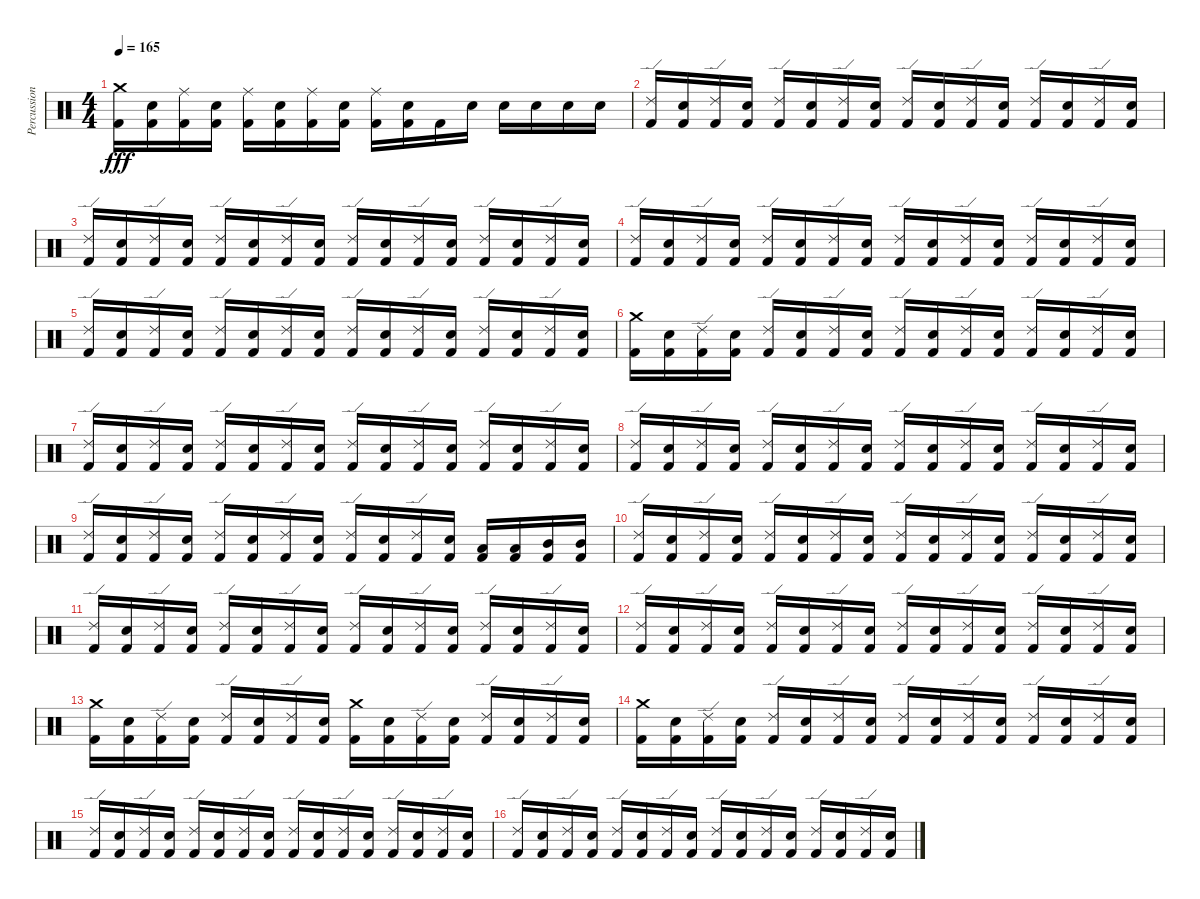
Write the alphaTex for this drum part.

\track ("Percussions" "Percussion") {instrument percussion}
\staff {score}
\articulation defaults
\ts (4 4)
\tempo 165
\clef neutral
\ks c
("Crash medium (hit)" "Kick (hit) 2").16{dy fff} ("Electric Snare (hit)" "Kick (hit) 2").16 ("Ride (middle)" "Kick (hit) 2").16 ("Electric Snare (hit)" "Kick (hit) 2").16 ("Ride (middle)" "Kick (hit) 2").16 ("Electric Snare (hit)" "Kick (hit) 2").16 ("Ride (middle)" "Kick (hit) 2").16 ("Electric Snare (hit)" "Kick (hit) 2").16 ("Ride (middle)" "Kick (hit) 2").16 ("Electric Snare (hit)" "Kick (hit) 2").16 "Kick (hit) 2".16 "Electric Snare (hit)".16 "Electric Snare (hit)".16 "Electric Snare (hit)".16 "Electric Snare (hit)".16 "Electric Snare (hit)".16 |
("Ride (edge) 2" "Kick (hit) 2").16 ("Electric Snare (hit)" "Kick (hit) 2").16 ("Ride (edge) 2" "Kick (hit) 2").16 ("Electric Snare (hit)" "Kick (hit) 2").16 ("Ride (edge) 2" "Kick (hit) 2").16 ("Electric Snare (hit)" "Kick (hit) 2").16 ("Ride (edge) 2" "Kick (hit) 2").16 ("Electric Snare (hit)" "Kick (hit) 2").16 ("Ride (edge) 2" "Kick (hit) 2").16 ("Electric Snare (hit)" "Kick (hit) 2").16 ("Ride (edge) 2" "Kick (hit) 2").16 ("Electric Snare (hit)" "Kick (hit) 2").16 ("Ride (edge) 2" "Kick (hit) 2").16 ("Electric Snare (hit)" "Kick (hit) 2").16 ("Ride (edge) 2" "Kick (hit) 2").16 ("Electric Snare (hit)" "Kick (hit) 2").16 |
("Ride (edge) 2" "Kick (hit) 2").16 ("Electric Snare (hit)" "Kick (hit) 2").16 ("Ride (edge) 2" "Kick (hit) 2").16 ("Electric Snare (hit)" "Kick (hit) 2").16 ("Ride (edge) 2" "Kick (hit) 2").16 ("Electric Snare (hit)" "Kick (hit) 2").16 ("Ride (edge) 2" "Kick (hit) 2").16 ("Electric Snare (hit)" "Kick (hit) 2").16 ("Ride (edge) 2" "Kick (hit) 2").16 ("Electric Snare (hit)" "Kick (hit) 2").16 ("Ride (edge) 2" "Kick (hit) 2").16 ("Electric Snare (hit)" "Kick (hit) 2").16 ("Ride (edge) 2" "Kick (hit) 2").16 ("Electric Snare (hit)" "Kick (hit) 2").16 ("Ride (edge) 2" "Kick (hit) 2").16 ("Electric Snare (hit)" "Kick (hit) 2").16 |
("Ride (edge) 2" "Kick (hit) 2").16 ("Electric Snare (hit)" "Kick (hit) 2").16 ("Ride (edge) 2" "Kick (hit) 2").16 ("Electric Snare (hit)" "Kick (hit) 2").16 ("Ride (edge) 2" "Kick (hit) 2").16 ("Electric Snare (hit)" "Kick (hit) 2").16 ("Ride (edge) 2" "Kick (hit) 2").16 ("Electric Snare (hit)" "Kick (hit) 2").16 ("Ride (edge) 2" "Kick (hit) 2").16 ("Electric Snare (hit)" "Kick (hit) 2").16 ("Ride (edge) 2" "Kick (hit) 2").16 ("Electric Snare (hit)" "Kick (hit) 2").16 ("Ride (edge) 2" "Kick (hit) 2").16 ("Electric Snare (hit)" "Kick (hit) 2").16 ("Ride (edge) 2" "Kick (hit) 2").16 ("Electric Snare (hit)" "Kick (hit) 2").16 |
("Ride (edge) 2" "Kick (hit) 2").16 ("Electric Snare (hit)" "Kick (hit) 2").16 ("Ride (edge) 2" "Kick (hit) 2").16 ("Electric Snare (hit)" "Kick (hit) 2").16 ("Ride (edge) 2" "Kick (hit) 2").16 ("Electric Snare (hit)" "Kick (hit) 2").16 ("Ride (edge) 2" "Kick (hit) 2").16 ("Electric Snare (hit)" "Kick (hit) 2").16 ("Ride (edge) 2" "Kick (hit) 2").16 ("Electric Snare (hit)" "Kick (hit) 2").16 ("Ride (edge) 2" "Kick (hit) 2").16 ("Electric Snare (hit)" "Kick (hit) 2").16 ("Ride (edge) 2" "Kick (hit) 2").16 ("Electric Snare (hit)" "Kick (hit) 2").16 ("Ride (edge) 2" "Kick (hit) 2").16 ("Electric Snare (hit)" "Kick (hit) 2").16 |
("Crash medium (hit)" "Kick (hit) 2").16 ("Electric Snare (hit)" "Kick (hit) 2").16 ("Ride (edge) 2" "Kick (hit) 2").16 ("Electric Snare (hit)" "Kick (hit) 2").16 ("Ride (edge) 2" "Kick (hit) 2").16 ("Electric Snare (hit)" "Kick (hit) 2").16 ("Ride (edge) 2" "Kick (hit) 2").16 ("Electric Snare (hit)" "Kick (hit) 2").16 ("Ride (edge) 2" "Kick (hit) 2").16 ("Electric Snare (hit)" "Kick (hit) 2").16 ("Ride (edge) 2" "Kick (hit) 2").16 ("Electric Snare (hit)" "Kick (hit) 2").16 ("Ride (edge) 2" "Kick (hit) 2").16 ("Electric Snare (hit)" "Kick (hit) 2").16 ("Ride (edge) 2" "Kick (hit) 2").16 ("Electric Snare (hit)" "Kick (hit) 2").16 |
("Ride (edge) 2" "Kick (hit) 2").16 ("Electric Snare (hit)" "Kick (hit) 2").16 ("Ride (edge) 2" "Kick (hit) 2").16 ("Electric Snare (hit)" "Kick (hit) 2").16 ("Ride (edge) 2" "Kick (hit) 2").16 ("Electric Snare (hit)" "Kick (hit) 2").16 ("Ride (edge) 2" "Kick (hit) 2").16 ("Electric Snare (hit)" "Kick (hit) 2").16 ("Ride (edge) 2" "Kick (hit) 2").16 ("Electric Snare (hit)" "Kick (hit) 2").16 ("Ride (edge) 2" "Kick (hit) 2").16 ("Electric Snare (hit)" "Kick (hit) 2").16 ("Ride (edge) 2" "Kick (hit) 2").16 ("Electric Snare (hit)" "Kick (hit) 2").16 ("Ride (edge) 2" "Kick (hit) 2").16 ("Electric Snare (hit)" "Kick (hit) 2").16 |
("Ride (edge) 2" "Kick (hit) 2").16 ("Electric Snare (hit)" "Kick (hit) 2").16 ("Ride (edge) 2" "Kick (hit) 2").16 ("Electric Snare (hit)" "Kick (hit) 2").16 ("Ride (edge) 2" "Kick (hit) 2").16 ("Electric Snare (hit)" "Kick (hit) 2").16 ("Ride (edge) 2" "Kick (hit) 2").16 ("Electric Snare (hit)" "Kick (hit) 2").16 ("Ride (edge) 2" "Kick (hit) 2").16 ("Electric Snare (hit)" "Kick (hit) 2").16 ("Ride (edge) 2" "Kick (hit) 2").16 ("Electric Snare (hit)" "Kick (hit) 2").16 ("Ride (edge) 2" "Kick (hit) 2").16 ("Electric Snare (hit)" "Kick (hit) 2").16 ("Ride (edge) 2" "Kick (hit) 2").16 ("Electric Snare (hit)" "Kick (hit) 2").16 |
("Ride (edge) 2" "Kick (hit) 2").16 ("Electric Snare (hit)" "Kick (hit) 2").16 ("Ride (edge) 2" "Kick (hit) 2").16 ("Electric Snare (hit)" "Kick (hit) 2").16 ("Ride (edge) 2" "Kick (hit) 2").16 ("Electric Snare (hit)" "Kick (hit) 2").16 ("Ride (edge) 2" "Kick (hit) 2").16 ("Electric Snare (hit)" "Kick (hit) 2").16 ("Ride (edge) 2" "Kick (hit) 2").16 ("Electric Snare (hit)" "Kick (hit) 2").16 ("Ride (edge) 2" "Kick (hit) 2").16 ("Electric Snare (hit)" "Kick (hit) 2").16 ("Low Tom (hit)" "Kick (hit) 2").16 ("Low Tom (hit)" "Kick (hit) 2").16 ("Mid Tom (hit)" "Kick (hit) 2").16 ("Mid Tom (hit)" "Kick (hit) 2").16 |
("Ride (edge) 2" "Kick (hit) 2").16 ("Electric Snare (hit)" "Kick (hit) 2").16 ("Ride (edge) 2" "Kick (hit) 2").16 ("Electric Snare (hit)" "Kick (hit) 2").16 ("Ride (edge) 2" "Kick (hit) 2").16 ("Electric Snare (hit)" "Kick (hit) 2").16 ("Ride (edge) 2" "Kick (hit) 2").16 ("Electric Snare (hit)" "Kick (hit) 2").16 ("Ride (edge) 2" "Kick (hit) 2").16 ("Electric Snare (hit)" "Kick (hit) 2").16 ("Ride (edge) 2" "Kick (hit) 2").16 ("Electric Snare (hit)" "Kick (hit) 2").16 ("Ride (edge) 2" "Kick (hit) 2").16 ("Electric Snare (hit)" "Kick (hit) 2").16 ("Ride (edge) 2" "Kick (hit) 2").16 ("Electric Snare (hit)" "Kick (hit) 2").16 |
("Ride (edge) 2" "Kick (hit) 2").16 ("Electric Snare (hit)" "Kick (hit) 2").16 ("Ride (edge) 2" "Kick (hit) 2").16 ("Electric Snare (hit)" "Kick (hit) 2").16 ("Ride (edge) 2" "Kick (hit) 2").16 ("Electric Snare (hit)" "Kick (hit) 2").16 ("Ride (edge) 2" "Kick (hit) 2").16 ("Electric Snare (hit)" "Kick (hit) 2").16 ("Ride (edge) 2" "Kick (hit) 2").16 ("Electric Snare (hit)" "Kick (hit) 2").16 ("Ride (edge) 2" "Kick (hit) 2").16 ("Electric Snare (hit)" "Kick (hit) 2").16 ("Ride (edge) 2" "Kick (hit) 2").16 ("Electric Snare (hit)" "Kick (hit) 2").16 ("Ride (edge) 2" "Kick (hit) 2").16 ("Electric Snare (hit)" "Kick (hit) 2").16 |
("Ride (edge) 2" "Kick (hit) 2").16 ("Electric Snare (hit)" "Kick (hit) 2").16 ("Ride (edge) 2" "Kick (hit) 2").16 ("Electric Snare (hit)" "Kick (hit) 2").16 ("Ride (edge) 2" "Kick (hit) 2").16 ("Electric Snare (hit)" "Kick (hit) 2").16 ("Ride (edge) 2" "Kick (hit) 2").16 ("Electric Snare (hit)" "Kick (hit) 2").16 ("Ride (edge) 2" "Kick (hit) 2").16 ("Electric Snare (hit)" "Kick (hit) 2").16 ("Ride (edge) 2" "Kick (hit) 2").16 ("Electric Snare (hit)" "Kick (hit) 2").16 ("Ride (edge) 2" "Kick (hit) 2").16 ("Electric Snare (hit)" "Kick (hit) 2").16 ("Ride (edge) 2" "Kick (hit) 2").16 ("Electric Snare (hit)" "Kick (hit) 2").16 |
("Crash medium (hit)" "Kick (hit) 2").16 ("Electric Snare (hit)" "Kick (hit) 2").16 ("Ride (edge) 2" "Kick (hit) 2").16 ("Electric Snare (hit)" "Kick (hit) 2").16 ("Ride (edge) 2" "Kick (hit) 2").16 ("Electric Snare (hit)" "Kick (hit) 2").16 ("Ride (edge) 2" "Kick (hit) 2").16 ("Electric Snare (hit)" "Kick (hit) 2").16 ("Crash medium (hit)" "Kick (hit) 2").16 ("Electric Snare (hit)" "Kick (hit) 2").16 ("Ride (edge) 2" "Kick (hit) 2").16 ("Electric Snare (hit)" "Kick (hit) 2").16 ("Ride (edge) 2" "Kick (hit) 2").16 ("Electric Snare (hit)" "Kick (hit) 2").16 ("Ride (edge) 2" "Kick (hit) 2").16 ("Electric Snare (hit)" "Kick (hit) 2").16 |
("Crash medium (hit)" "Kick (hit) 2").16 ("Electric Snare (hit)" "Kick (hit) 2").16 ("Ride (edge) 2" "Kick (hit) 2").16 ("Electric Snare (hit)" "Kick (hit) 2").16 ("Ride (edge) 2" "Kick (hit) 2").16 ("Electric Snare (hit)" "Kick (hit) 2").16 ("Ride (edge) 2" "Kick (hit) 2").16 ("Electric Snare (hit)" "Kick (hit) 2").16 ("Ride (edge) 2" "Kick (hit) 2").16 ("Electric Snare (hit)" "Kick (hit) 2").16 ("Ride (edge) 2" "Kick (hit) 2").16 ("Electric Snare (hit)" "Kick (hit) 2").16 ("Ride (edge) 2" "Kick (hit) 2").16 ("Electric Snare (hit)" "Kick (hit) 2").16 ("Ride (edge) 2" "Kick (hit) 2").16 ("Electric Snare (hit)" "Kick (hit) 2").16 |
("Ride (edge) 2" "Kick (hit) 2").16 ("Electric Snare (hit)" "Kick (hit) 2").16 ("Ride (edge) 2" "Kick (hit) 2").16 ("Electric Snare (hit)" "Kick (hit) 2").16 ("Ride (edge) 2" "Kick (hit) 2").16 ("Electric Snare (hit)" "Kick (hit) 2").16 ("Ride (edge) 2" "Kick (hit) 2").16 ("Electric Snare (hit)" "Kick (hit) 2").16 ("Ride (edge) 2" "Kick (hit) 2").16 ("Electric Snare (hit)" "Kick (hit) 2").16 ("Ride (edge) 2" "Kick (hit) 2").16 ("Electric Snare (hit)" "Kick (hit) 2").16 ("Ride (edge) 2" "Kick (hit) 2").16 ("Electric Snare (hit)" "Kick (hit) 2").16 ("Ride (edge) 2" "Kick (hit) 2").16 ("Electric Snare (hit)" "Kick (hit) 2").16 |
("Ride (edge) 2" "Kick (hit) 2").16 ("Electric Snare (hit)" "Kick (hit) 2").16 ("Ride (edge) 2" "Kick (hit) 2").16 ("Electric Snare (hit)" "Kick (hit) 2").16 ("Ride (edge) 2" "Kick (hit) 2").16 ("Electric Snare (hit)" "Kick (hit) 2").16 ("Ride (edge) 2" "Kick (hit) 2").16 ("Electric Snare (hit)" "Kick (hit) 2").16 ("Ride (edge) 2" "Kick (hit) 2").16 ("Electric Snare (hit)" "Kick (hit) 2").16 ("Ride (edge) 2" "Kick (hit) 2").16 ("Electric Snare (hit)" "Kick (hit) 2").16 ("Ride (edge) 2" "Kick (hit) 2").16 ("Electric Snare (hit)" "Kick (hit) 2").16 ("Ride (edge) 2" "Kick (hit) 2").16 ("Electric Snare (hit)" "Kick (hit) 2").16
